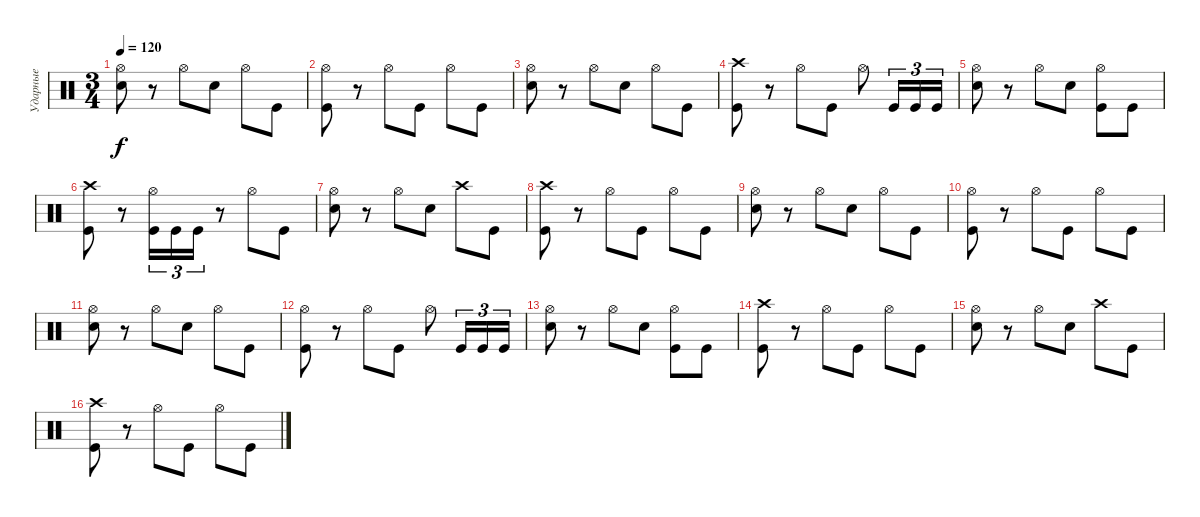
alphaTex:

\track ("Ударные" "Ударные") {instrument percussion}
\staff {score}
\articulation defaults
\ts (3 4)
\tempo 120
\clef neutral
\ks c
("Hi-Hat (open)" "Snare (hit) 2").8{dy f} r.8 "Hi-Hat (open)".8 "Snare (hit) 2".8 "Hi-Hat (open)".8 "Kick (hit)".8 |
("Hi-Hat (open)" "Kick (hit)").8 r.8 "Hi-Hat (open)".8 "Kick (hit)".8 "Hi-Hat (open)".8 "Kick (hit)".8 |
("Hi-Hat (open)" "Snare (hit) 2").8 r.8 "Hi-Hat (open)".8 "Snare (hit) 2".8 "Hi-Hat (open)".8 "Kick (hit)".8 |
("Crash high (hit)" "Kick (hit)").8 r.8 "Hi-Hat (open)".8 "Kick (hit)".8 "Hi-Hat (open)".8 "Kick (hit)".16{tu (3 2)} "Kick (hit)".16{tu (3 2)} "Kick (hit)".16{tu (3 2)} |
("Hi-Hat (open)" "Snare (hit) 2").8 r.8 "Hi-Hat (open)".8 "Snare (hit) 2".8 ("Hi-Hat (open)" "Kick (hit)").8 "Kick (hit)".8 |
("Crash high (hit)" "Kick (hit)").8 r.8 ("Hi-Hat (open)" "Kick (hit)").16{tu (3 2)} "Kick (hit)".16{tu (3 2)} "Kick (hit)".16{tu (3 2)} r.8 "Hi-Hat (open)".8 "Kick (hit)".8 |
("Hi-Hat (open)" "Snare (hit) 2").8 r.8 "Hi-Hat (open)".8 "Snare (hit) 2".8 "Crash high (hit)".8 "Kick (hit)".8 |
("Crash high (hit)" "Kick (hit)").8 r.8 "Hi-Hat (open)".8 "Kick (hit)".8 "Hi-Hat (open)".8 "Kick (hit)".8 |
("Hi-Hat (open)" "Snare (hit) 2").8 r.8 "Hi-Hat (open)".8 "Snare (hit) 2".8 "Hi-Hat (open)".8 "Kick (hit)".8 |
("Hi-Hat (open)" "Kick (hit)").8 r.8 "Hi-Hat (open)".8 "Kick (hit)".8 "Hi-Hat (open)".8 "Kick (hit)".8 |
("Hi-Hat (open)" "Snare (hit) 2").8 r.8 "Hi-Hat (open)".8 "Snare (hit) 2".8 "Hi-Hat (open)".8 "Kick (hit)".8 |
("Hi-Hat (open)" "Kick (hit)").8 r.8 "Hi-Hat (open)".8 "Kick (hit)".8 "Hi-Hat (open)".8 "Kick (hit)".16{tu (3 2)} "Kick (hit)".16{tu (3 2)} "Kick (hit)".16{tu (3 2)} |
("Hi-Hat (open)" "Snare (hit) 2").8 r.8 "Hi-Hat (open)".8 "Snare (hit) 2".8 ("Hi-Hat (open)" "Kick (hit)").8 "Kick (hit)".8 |
("Crash high (hit)" "Kick (hit)").8 r.8 "Hi-Hat (open)".8 "Kick (hit)".8 "Hi-Hat (open)".8 "Kick (hit)".8 |
("Hi-Hat (open)" "Snare (hit) 2").8 r.8 "Hi-Hat (open)".8 "Snare (hit) 2".8 "Crash high (hit)".8 "Kick (hit)".8 |
("Crash high (hit)" "Kick (hit)").8 r.8 "Hi-Hat (open)".8 "Kick (hit)".8 "Hi-Hat (open)".8 "Kick (hit)".8
